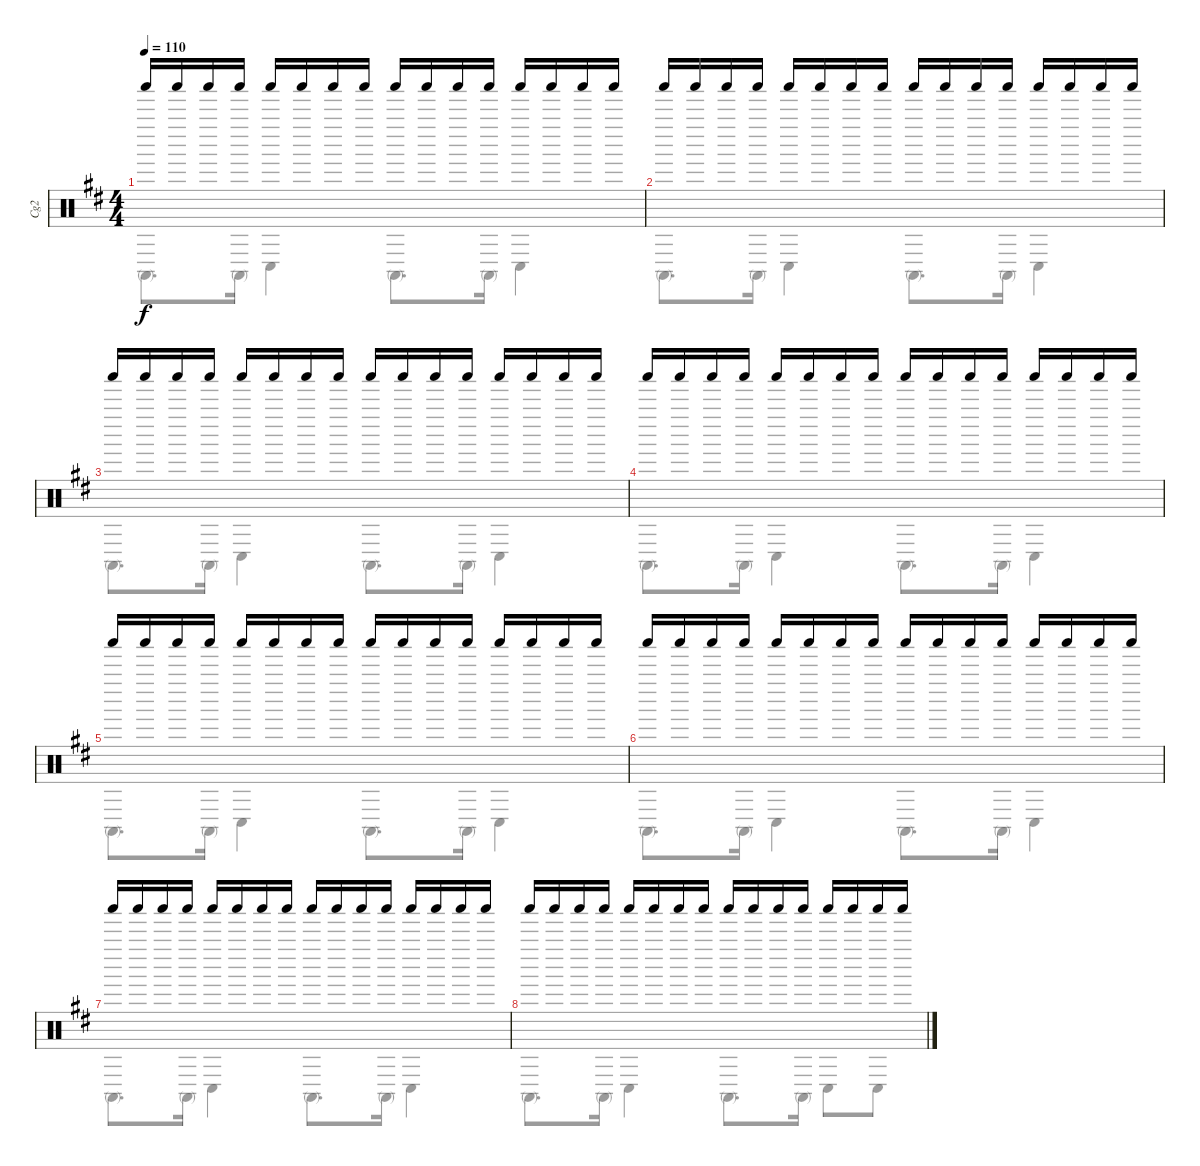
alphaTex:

\track ("Cg2" "Cg2") {instrument percussion}
\staff {score}
\articulation defaults
\voice
\ts (4 4)
\tempo 110
\clef neutral
\ks d "Shaker (hit)".16{dy f} "Shaker (hit)".16 "Shaker (hit)".16 "Shaker (hit)".16 "Shaker (hit)".16 "Shaker (hit)".16 "Shaker (hit)".16 "Shaker (hit)".16 "Shaker (hit)".16 "Shaker (hit)".16 "Shaker (hit)".16 "Shaker (hit)".16 "Shaker (hit)".16 "Shaker (hit)".16 "Shaker (hit)".16 "Shaker (hit)".16
|
"Shaker (hit)".16 "Shaker (hit)".16 "Shaker (hit)".16 "Shaker (hit)".16 "Shaker (hit)".16 "Shaker (hit)".16 "Shaker (hit)".16 "Shaker (hit)".16 "Shaker (hit)".16 "Shaker (hit)".16 "Shaker (hit)".16 "Shaker (hit)".16 "Shaker (hit)".16 "Shaker (hit)".16 "Shaker (hit)".16 "Shaker (hit)".16 |
"Shaker (hit)".16 "Shaker (hit)".16 "Shaker (hit)".16 "Shaker (hit)".16 "Shaker (hit)".16 "Shaker (hit)".16 "Shaker (hit)".16 "Shaker (hit)".16 "Shaker (hit)".16 "Shaker (hit)".16 "Shaker (hit)".16 "Shaker (hit)".16 "Shaker (hit)".16 "Shaker (hit)".16 "Shaker (hit)".16 "Shaker (hit)".16 |
"Shaker (hit)".16 "Shaker (hit)".16 "Shaker (hit)".16 "Shaker (hit)".16 "Shaker (hit)".16 "Shaker (hit)".16 "Shaker (hit)".16 "Shaker (hit)".16 "Shaker (hit)".16 "Shaker (hit)".16 "Shaker (hit)".16 "Shaker (hit)".16 "Shaker (hit)".16 "Shaker (hit)".16 "Shaker (hit)".16 "Shaker (hit)".16 |
"Shaker (hit)".16 "Shaker (hit)".16 "Shaker (hit)".16 "Shaker (hit)".16 "Shaker (hit)".16 "Shaker (hit)".16 "Shaker (hit)".16 "Shaker (hit)".16 "Shaker (hit)".16 "Shaker (hit)".16 "Shaker (hit)".16 "Shaker (hit)".16 "Shaker (hit)".16 "Shaker (hit)".16 "Shaker (hit)".16 "Shaker (hit)".16 |
"Shaker (hit)".16 "Shaker (hit)".16 "Shaker (hit)".16 "Shaker (hit)".16 "Shaker (hit)".16 "Shaker (hit)".16 "Shaker (hit)".16 "Shaker (hit)".16 "Shaker (hit)".16 "Shaker (hit)".16 "Shaker (hit)".16 "Shaker (hit)".16 "Shaker (hit)".16 "Shaker (hit)".16 "Shaker (hit)".16 "Shaker (hit)".16 |
"Shaker (hit)".16 "Shaker (hit)".16 "Shaker (hit)".16 "Shaker (hit)".16 "Shaker (hit)".16 "Shaker (hit)".16 "Shaker (hit)".16 "Shaker (hit)".16 "Shaker (hit)".16 "Shaker (hit)".16 "Shaker (hit)".16 "Shaker (hit)".16 "Shaker (hit)".16 "Shaker (hit)".16 "Shaker (hit)".16 "Shaker (hit)".16 |
"Shaker (hit)".16 "Shaker (hit)".16 "Shaker (hit)".16 "Shaker (hit)".16 "Shaker (hit)".16 "Shaker (hit)".16 "Shaker (hit)".16 "Shaker (hit)".16 "Shaker (hit)".16 "Shaker (hit)".16 "Shaker (hit)".16 "Shaker (hit)".16 "Shaker (hit)".16 "Shaker (hit)".16 "Shaker (hit)".16 "Shaker (hit)".16
\voice
\clef neutral
\ottava regular
\simile none
\ks d "Conga high (mute)".8{d dy f} "Conga high (mute)".16 "Conga low (hit)".4 "Conga high (mute)".8{d} "Conga high (mute)".16 "Conga low (hit)".4
|
"Conga high (mute)".8{d} "Conga high (mute)".16 "Conga low (hit)".4 "Conga high (mute)".8{d} "Conga high (mute)".16 "Conga low (hit)".4 |
"Conga high (mute)".8{d} "Conga high (mute)".16 "Conga low (hit)".4 "Conga high (mute)".8{d} "Conga high (mute)".16 "Conga low (hit)".4 |
"Conga high (mute)".8{d} "Conga high (mute)".16 "Conga low (hit)".4 "Conga high (mute)".8{d} "Conga high (mute)".16 "Conga low (hit)".4 |
"Conga high (mute)".8{d} "Conga high (mute)".16 "Conga low (hit)".4 "Conga high (mute)".8{d} "Conga high (mute)".16 "Conga low (hit)".4 |
"Conga high (mute)".8{d} "Conga high (mute)".16 "Conga low (hit)".4 "Conga high (mute)".8{d} "Conga high (mute)".16 "Conga low (hit)".4 |
"Conga high (mute)".8{d} "Conga high (mute)".16 "Conga low (hit)".4 "Conga high (mute)".8{d} "Conga high (mute)".16 "Conga low (hit)".4 |
"Conga high (mute)".8{d} "Conga high (mute)".16 "Conga low (hit)".4 "Conga high (mute)".8{d} "Conga high (mute)".16 "Conga low (hit)".8 "Conga low (hit)".8
